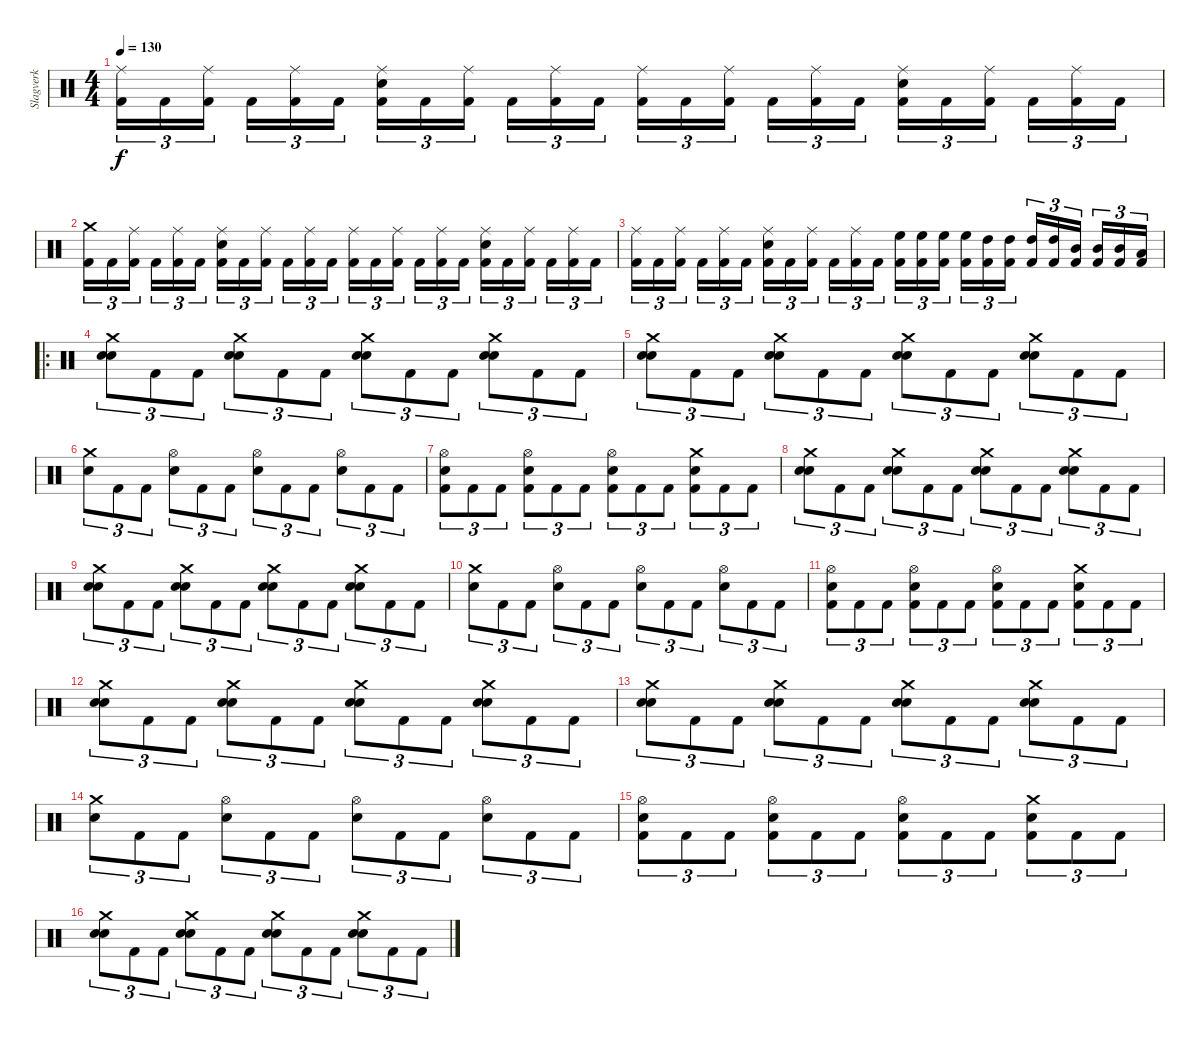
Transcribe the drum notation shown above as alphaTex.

\track ("Slagverk" "Slagverk") {instrument percussion}
\staff {score}
\articulation defaults
\ts (4 4)
\tempo 130
\clef neutral
\ks c
("Kick (hit) 2" "Ride (middle)").16{tu (3 2) dy f} "Kick (hit) 2".16{tu (3 2)} ("Kick (hit) 2" "Ride (middle)").16{tu (3 2)} "Kick (hit) 2".16{tu (3 2)} ("Kick (hit) 2" "Ride (middle)").16{tu (3 2)} "Kick (hit) 2".16{tu (3 2)} ("Kick (hit) 2" "Electric Snare (hit)" "Ride (middle)").16{tu (3 2)} "Kick (hit) 2".16{tu (3 2)} ("Kick (hit) 2" "Ride (middle)").16{tu (3 2)} "Kick (hit) 2".16{tu (3 2)} ("Kick (hit) 2" "Ride (middle)").16{tu (3 2)} "Kick (hit) 2".16{tu (3 2)} ("Kick (hit) 2" "Ride (middle)").16{tu (3 2)} "Kick (hit) 2".16{tu (3 2)} ("Kick (hit) 2" "Ride (middle)").16{tu (3 2)} "Kick (hit) 2".16{tu (3 2)} ("Kick (hit) 2" "Ride (middle)").16{tu (3 2)} "Kick (hit) 2".16{tu (3 2)} ("Kick (hit) 2" "Electric Snare (hit)" "Ride (middle)").16{tu (3 2)} "Kick (hit) 2".16{tu (3 2)} ("Kick (hit) 2" "Ride (middle)").16{tu (3 2)} "Kick (hit) 2".16{tu (3 2)} ("Kick (hit) 2" "Ride (middle)").16{tu (3 2)} "Kick (hit) 2".16{tu (3 2)} |
("Kick (hit) 2" "Crash medium (hit)").16{tu (3 2)} "Kick (hit) 2".16{tu (3 2)} ("Kick (hit) 2" "Ride (middle)").16{tu (3 2)} "Kick (hit) 2".16{tu (3 2)} ("Kick (hit) 2" "Ride (middle)").16{tu (3 2)} "Kick (hit) 2".16{tu (3 2)} ("Kick (hit) 2" "Electric Snare (hit)" "Ride (middle)").16{tu (3 2)} "Kick (hit) 2".16{tu (3 2)} ("Kick (hit) 2" "Ride (middle)").16{tu (3 2)} "Kick (hit) 2".16{tu (3 2)} ("Kick (hit) 2" "Ride (middle)").16{tu (3 2)} "Kick (hit) 2".16{tu (3 2)} ("Kick (hit) 2" "Ride (middle)").16{tu (3 2)} "Kick (hit) 2".16{tu (3 2)} ("Kick (hit) 2" "Ride (middle)").16{tu (3 2)} "Kick (hit) 2".16{tu (3 2)} ("Kick (hit) 2" "Ride (middle)").16{tu (3 2)} "Kick (hit) 2".16{tu (3 2)} ("Kick (hit) 2" "Electric Snare (hit)" "Ride (middle)").16{tu (3 2)} "Kick (hit) 2".16{tu (3 2)} ("Kick (hit) 2" "Ride (middle)").16{tu (3 2)} "Kick (hit) 2".16{tu (3 2)} ("Kick (hit) 2" "Ride (middle)").16{tu (3 2)} "Kick (hit) 2".16{tu (3 2)} |
("Kick (hit) 2" "Ride (middle)").16{tu (3 2)} "Kick (hit) 2".16{tu (3 2)} ("Kick (hit) 2" "Ride (middle)").16{tu (3 2)} "Kick (hit) 2".16{tu (3 2)} ("Kick (hit) 2" "Ride (middle)").16{tu (3 2)} "Kick (hit) 2".16{tu (3 2)} ("Kick (hit) 2" "Electric Snare (hit)" "Ride (middle)").16{tu (3 2)} "Kick (hit) 2".16{tu (3 2)} ("Kick (hit) 2" "Ride (middle)").16{tu (3 2)} "Kick (hit) 2".16{tu (3 2)} ("Kick (hit) 2" "Ride (middle)").16{tu (3 2)} "Kick (hit) 2".16{tu (3 2)} ("Kick (hit) 2" "High Floor Tom (hit)").16{tu (3 2)} ("Kick (hit) 2" "High Floor Tom (hit)").16{tu (3 2)} ("Kick (hit) 2" "High Floor Tom (hit)").16{tu (3 2)} ("Kick (hit) 2" "High Floor Tom (hit)").16{tu (3 2)} ("Kick (hit) 2" "High Tom (hit)").16{tu (3 2)} ("Kick (hit) 2" "High Tom (hit)").16{tu (3 2)} ("Kick (hit) 2" "High Tom (hit)").16{tu (3 2)} ("Kick (hit) 2" "High Tom (hit)").16{tu (3 2)} ("Kick (hit) 2" "Mid Tom (hit)").16{tu (3 2)} ("Kick (hit) 2" "Mid Tom (hit)").16{tu (3 2)} ("Kick (hit) 2" "Mid Tom (hit)").16{tu (3 2)} ("Kick (hit) 2" "Low Tom (hit)").16{tu (3 2)} |
\ro
("Crash medium (hit)" "Electric Snare (hit)" "Electric Snare (hit)").8{tu (3 2)} "Kick (hit) 2".8{tu (3 2)} "Kick (hit) 2".8{tu (3 2)} ("Crash medium (hit)" "Electric Snare (hit)" "Electric Snare (hit)").8{tu (3 2)} "Kick (hit) 2".8{tu (3 2)} "Kick (hit) 2".8{tu (3 2)} ("Crash medium (hit)" "Electric Snare (hit)" "Electric Snare (hit)").8{tu (3 2)} "Kick (hit) 2".8{tu (3 2)} "Kick (hit) 2".8{tu (3 2)} ("Crash medium (hit)" "Electric Snare (hit)" "Electric Snare (hit)").8{tu (3 2)} "Kick (hit) 2".8{tu (3 2)} "Kick (hit) 2".8{tu (3 2)} |
("Crash medium (hit)" "Electric Snare (hit)" "Electric Snare (hit)").8{tu (3 2)} "Kick (hit) 2".8{tu (3 2)} "Kick (hit) 2".8{tu (3 2)} ("Crash medium (hit)" "Electric Snare (hit)" "Electric Snare (hit)").8{tu (3 2)} "Kick (hit) 2".8{tu (3 2)} "Kick (hit) 2".8{tu (3 2)} ("Crash medium (hit)" "Electric Snare (hit)" "Electric Snare (hit)").8{tu (3 2)} "Kick (hit) 2".8{tu (3 2)} "Kick (hit) 2".8{tu (3 2)} ("Crash medium (hit)" "Electric Snare (hit)" "Electric Snare (hit)").8{tu (3 2)} "Kick (hit) 2".8{tu (3 2)} "Kick (hit) 2".8{tu (3 2)} |
("Crash medium (hit)" "Electric Snare (hit)").8{tu (3 2)} "Kick (hit) 2".8{tu (3 2)} "Kick (hit) 2".8{tu (3 2)} ("Hi-Hat (open)" "Electric Snare (hit)").8{tu (3 2)} "Kick (hit) 2".8{tu (3 2)} "Kick (hit) 2".8{tu (3 2)} ("Hi-Hat (open)" "Electric Snare (hit)").8{tu (3 2)} "Kick (hit) 2".8{tu (3 2)} "Kick (hit) 2".8{tu (3 2)} ("Hi-Hat (open)" "Electric Snare (hit)").8{tu (3 2)} "Kick (hit) 2".8{tu (3 2)} "Kick (hit) 2".8{tu (3 2)} |
("Hi-Hat (open)" "Electric Snare (hit)" "Kick (hit) 2").8{tu (3 2)} "Kick (hit) 2".8{tu (3 2)} "Kick (hit) 2".8{tu (3 2)} ("Hi-Hat (open)" "Electric Snare (hit)" "Kick (hit) 2").8{tu (3 2)} "Kick (hit) 2".8{tu (3 2)} "Kick (hit) 2".8{tu (3 2)} ("Hi-Hat (open)" "Electric Snare (hit)" "Kick (hit) 2").8{tu (3 2)} "Kick (hit) 2".8{tu (3 2)} "Kick (hit) 2".8{tu (3 2)} ("Crash medium (hit)" "Electric Snare (hit)" "Kick (hit) 2").8{tu (3 2)} "Kick (hit) 2".8{tu (3 2)} "Kick (hit) 2".8{tu (3 2)} |
("Crash medium (hit)" "Electric Snare (hit)" "Electric Snare (hit)").8{tu (3 2)} "Kick (hit) 2".8{tu (3 2)} "Kick (hit) 2".8{tu (3 2)} ("Crash medium (hit)" "Electric Snare (hit)" "Electric Snare (hit)").8{tu (3 2)} "Kick (hit) 2".8{tu (3 2)} "Kick (hit) 2".8{tu (3 2)} ("Crash medium (hit)" "Electric Snare (hit)" "Electric Snare (hit)").8{tu (3 2)} "Kick (hit) 2".8{tu (3 2)} "Kick (hit) 2".8{tu (3 2)} ("Crash medium (hit)" "Electric Snare (hit)" "Electric Snare (hit)").8{tu (3 2)} "Kick (hit) 2".8{tu (3 2)} "Kick (hit) 2".8{tu (3 2)} |
("Crash medium (hit)" "Electric Snare (hit)" "Electric Snare (hit)").8{tu (3 2)} "Kick (hit) 2".8{tu (3 2)} "Kick (hit) 2".8{tu (3 2)} ("Crash medium (hit)" "Electric Snare (hit)" "Electric Snare (hit)").8{tu (3 2)} "Kick (hit) 2".8{tu (3 2)} "Kick (hit) 2".8{tu (3 2)} ("Crash medium (hit)" "Electric Snare (hit)" "Electric Snare (hit)").8{tu (3 2)} "Kick (hit) 2".8{tu (3 2)} "Kick (hit) 2".8{tu (3 2)} ("Crash medium (hit)" "Electric Snare (hit)" "Electric Snare (hit)").8{tu (3 2)} "Kick (hit) 2".8{tu (3 2)} "Kick (hit) 2".8{tu (3 2)} |
("Crash medium (hit)" "Electric Snare (hit)").8{tu (3 2)} "Kick (hit) 2".8{tu (3 2)} "Kick (hit) 2".8{tu (3 2)} ("Hi-Hat (open)" "Electric Snare (hit)").8{tu (3 2)} "Kick (hit) 2".8{tu (3 2)} "Kick (hit) 2".8{tu (3 2)} ("Hi-Hat (open)" "Electric Snare (hit)").8{tu (3 2)} "Kick (hit) 2".8{tu (3 2)} "Kick (hit) 2".8{tu (3 2)} ("Hi-Hat (open)" "Electric Snare (hit)").8{tu (3 2)} "Kick (hit) 2".8{tu (3 2)} "Kick (hit) 2".8{tu (3 2)} |
("Hi-Hat (open)" "Electric Snare (hit)" "Kick (hit) 2").8{tu (3 2)} "Kick (hit) 2".8{tu (3 2)} "Kick (hit) 2".8{tu (3 2)} ("Hi-Hat (open)" "Electric Snare (hit)" "Kick (hit) 2").8{tu (3 2)} "Kick (hit) 2".8{tu (3 2)} "Kick (hit) 2".8{tu (3 2)} ("Hi-Hat (open)" "Electric Snare (hit)" "Kick (hit) 2").8{tu (3 2)} "Kick (hit) 2".8{tu (3 2)} "Kick (hit) 2".8{tu (3 2)} ("Crash medium (hit)" "Electric Snare (hit)" "Kick (hit) 2").8{tu (3 2)} "Kick (hit) 2".8{tu (3 2)} "Kick (hit) 2".8{tu (3 2)} |
("Crash medium (hit)" "Electric Snare (hit)" "Electric Snare (hit)").8{tu (3 2)} "Kick (hit) 2".8{tu (3 2)} "Kick (hit) 2".8{tu (3 2)} ("Crash medium (hit)" "Electric Snare (hit)" "Electric Snare (hit)").8{tu (3 2)} "Kick (hit) 2".8{tu (3 2)} "Kick (hit) 2".8{tu (3 2)} ("Crash medium (hit)" "Electric Snare (hit)" "Electric Snare (hit)").8{tu (3 2)} "Kick (hit) 2".8{tu (3 2)} "Kick (hit) 2".8{tu (3 2)} ("Crash medium (hit)" "Electric Snare (hit)" "Electric Snare (hit)").8{tu (3 2)} "Kick (hit) 2".8{tu (3 2)} "Kick (hit) 2".8{tu (3 2)} |
("Crash medium (hit)" "Electric Snare (hit)" "Electric Snare (hit)").8{tu (3 2)} "Kick (hit) 2".8{tu (3 2)} "Kick (hit) 2".8{tu (3 2)} ("Crash medium (hit)" "Electric Snare (hit)" "Electric Snare (hit)").8{tu (3 2)} "Kick (hit) 2".8{tu (3 2)} "Kick (hit) 2".8{tu (3 2)} ("Crash medium (hit)" "Electric Snare (hit)" "Electric Snare (hit)").8{tu (3 2)} "Kick (hit) 2".8{tu (3 2)} "Kick (hit) 2".8{tu (3 2)} ("Crash medium (hit)" "Electric Snare (hit)" "Electric Snare (hit)").8{tu (3 2)} "Kick (hit) 2".8{tu (3 2)} "Kick (hit) 2".8{tu (3 2)} |
("Crash medium (hit)" "Electric Snare (hit)").8{tu (3 2)} "Kick (hit) 2".8{tu (3 2)} "Kick (hit) 2".8{tu (3 2)} ("Hi-Hat (open)" "Electric Snare (hit)").8{tu (3 2)} "Kick (hit) 2".8{tu (3 2)} "Kick (hit) 2".8{tu (3 2)} ("Hi-Hat (open)" "Electric Snare (hit)").8{tu (3 2)} "Kick (hit) 2".8{tu (3 2)} "Kick (hit) 2".8{tu (3 2)} ("Hi-Hat (open)" "Electric Snare (hit)").8{tu (3 2)} "Kick (hit) 2".8{tu (3 2)} "Kick (hit) 2".8{tu (3 2)} |
("Hi-Hat (open)" "Electric Snare (hit)" "Kick (hit) 2").8{tu (3 2)} "Kick (hit) 2".8{tu (3 2)} "Kick (hit) 2".8{tu (3 2)} ("Hi-Hat (open)" "Electric Snare (hit)" "Kick (hit) 2").8{tu (3 2)} "Kick (hit) 2".8{tu (3 2)} "Kick (hit) 2".8{tu (3 2)} ("Hi-Hat (open)" "Electric Snare (hit)" "Kick (hit) 2").8{tu (3 2)} "Kick (hit) 2".8{tu (3 2)} "Kick (hit) 2".8{tu (3 2)} ("Crash medium (hit)" "Electric Snare (hit)" "Kick (hit) 2").8{tu (3 2)} "Kick (hit) 2".8{tu (3 2)} "Kick (hit) 2".8{tu (3 2)} |
("Crash medium (hit)" "Electric Snare (hit)" "Electric Snare (hit)").8{tu (3 2)} "Kick (hit) 2".8{tu (3 2)} "Kick (hit) 2".8{tu (3 2)} ("Crash medium (hit)" "Electric Snare (hit)" "Electric Snare (hit)").8{tu (3 2)} "Kick (hit) 2".8{tu (3 2)} "Kick (hit) 2".8{tu (3 2)} ("Crash medium (hit)" "Electric Snare (hit)" "Electric Snare (hit)").8{tu (3 2)} "Kick (hit) 2".8{tu (3 2)} "Kick (hit) 2".8{tu (3 2)} ("Crash medium (hit)" "Electric Snare (hit)" "Electric Snare (hit)").8{tu (3 2)} "Kick (hit) 2".8{tu (3 2)} "Kick (hit) 2".8{tu (3 2)}
